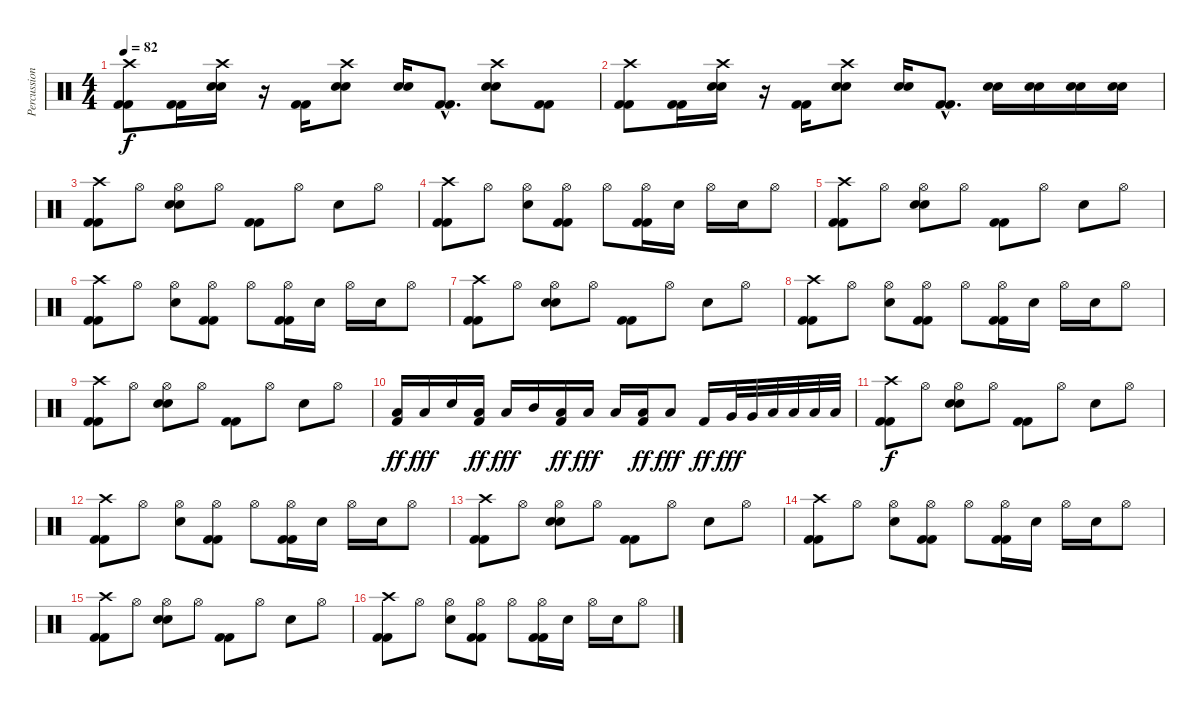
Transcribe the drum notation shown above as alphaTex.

\track ("Percussion" "Percussion") {instrument percussion}
\staff {score}
\articulation defaults
\ts (4 4)
\tempo 82
\clef neutral
\ks c
("Crash high (hit)" "Kick (hit) 2" "Kick (hit) 2").8{dy f} ("Kick (hit) 2" "Kick (hit) 2").16 ("Crash high (hit)" "Electric Snare (hit)" "Electric Snare (hit)").16 r.16 ("Kick (hit) 2" "Kick (hit) 2").16 ("Crash high (hit)" "Electric Snare (hit)" "Electric Snare (hit)").8 ("Electric Snare (hit)" "Electric Snare (hit)").16 ("Kick (hit) 2"{hac} "Kick (hit) 2"{hac}).8{d} ("Crash high (hit)" "Electric Snare (hit)" "Electric Snare (hit)").8 ("Kick (hit) 2" "Kick (hit) 2").8 |
("Crash high (hit)" "Kick (hit) 2" "Kick (hit) 2").8 ("Kick (hit) 2" "Kick (hit) 2").16 ("Crash high (hit)" "Electric Snare (hit)" "Electric Snare (hit)").16 r.16 ("Kick (hit) 2" "Kick (hit) 2").16 ("Crash high (hit)" "Electric Snare (hit)" "Electric Snare (hit)").8 ("Electric Snare (hit)" "Electric Snare (hit)").16 ("Kick (hit) 2"{hac} "Kick (hit) 2"{hac}).8{d} ("Electric Snare (hit)" "Electric Snare (hit)").16 ("Electric Snare (hit)" "Electric Snare (hit)").16 ("Electric Snare (hit)" "Electric Snare (hit)").16 ("Electric Snare (hit)" "Electric Snare (hit)").16 |
("Crash high (hit)" "Kick (hit) 2" "Kick (hit) 2").8 "Hi-Hat (open)".8 ("Hi-Hat (open)" "Electric Snare (hit)" "Electric Snare (hit)").8 "Hi-Hat (open)".8 ("Kick (hit) 2" "Kick (hit) 2").8 "Hi-Hat (open)".8 "Electric Snare (hit)".8 "Hi-Hat (open)".8 |
("Crash high (hit)" "Kick (hit) 2" "Kick (hit) 2").8 "Hi-Hat (open)".8 ("Hi-Hat (open)" "Electric Snare (hit)").8 ("Hi-Hat (open)" "Kick (hit) 2" "Kick (hit) 2").8 "Hi-Hat (open)".8 ("Hi-Hat (open)" "Kick (hit) 2" "Kick (hit) 2").16 "Electric Snare (hit)".16 "Hi-Hat (open)".16 "Electric Snare (hit)".16 "Hi-Hat (open)".8 |
("Crash high (hit)" "Kick (hit) 2" "Kick (hit) 2").8 "Hi-Hat (open)".8 ("Hi-Hat (open)" "Electric Snare (hit)" "Electric Snare (hit)").8 "Hi-Hat (open)".8 ("Kick (hit) 2" "Kick (hit) 2").8 "Hi-Hat (open)".8 "Electric Snare (hit)".8 "Hi-Hat (open)".8 |
("Crash high (hit)" "Kick (hit) 2" "Kick (hit) 2").8 "Hi-Hat (open)".8 ("Hi-Hat (open)" "Electric Snare (hit)").8 ("Hi-Hat (open)" "Kick (hit) 2" "Kick (hit) 2").8 "Hi-Hat (open)".8 ("Hi-Hat (open)" "Kick (hit) 2" "Kick (hit) 2").16 "Electric Snare (hit)".16 "Hi-Hat (open)".16 "Electric Snare (hit)".16 "Hi-Hat (open)".8 |
("Crash high (hit)" "Kick (hit) 2" "Kick (hit) 2").8 "Hi-Hat (open)".8 ("Hi-Hat (open)" "Electric Snare (hit)" "Electric Snare (hit)").8 "Hi-Hat (open)".8 ("Kick (hit) 2" "Kick (hit) 2").8 "Hi-Hat (open)".8 "Electric Snare (hit)".8 "Hi-Hat (open)".8 |
("Crash high (hit)" "Kick (hit) 2" "Kick (hit) 2").8 "Hi-Hat (open)".8 ("Hi-Hat (open)" "Electric Snare (hit)").8 ("Hi-Hat (open)" "Kick (hit) 2" "Kick (hit) 2").8 "Hi-Hat (open)".8 ("Hi-Hat (open)" "Kick (hit) 2" "Kick (hit) 2").16 "Electric Snare (hit)".16 "Hi-Hat (open)".16 "Electric Snare (hit)".16 "Hi-Hat (open)".8 |
("Crash high (hit)" "Kick (hit) 2" "Kick (hit) 2").8 "Hi-Hat (open)".8 ("Hi-Hat (open)" "Electric Snare (hit)" "Electric Snare (hit)").8 "Hi-Hat (open)".8 ("Kick (hit) 2" "Kick (hit) 2").8 "Hi-Hat (open)".8 "Electric Snare (hit)".8 "Hi-Hat (open)".8 |
("Low Floor Tom (hit)" "Kick (hit) 2").16{dy ff} "Low Floor Tom (hit)".16{dy fff} "Electric Snare (hit)".16 ("Low Floor Tom (hit)" "Kick (hit) 2").16{dy ff} "Low Floor Tom (hit)".16{dy fff} "Mid Tom (hit)".16 ("Low Floor Tom (hit)" "Kick (hit) 2").16{dy ff} "Low Floor Tom (hit)".16{dy fff} "Low Tom (hit)".16 ("Low Floor Tom (hit)" "Kick (hit) 2").16{dy ff} "Low Floor Tom (hit)".8{dy fff} "Kick (hit) 2".16{dy ff} "Very Low Tom (hit)".32{dy fff} "Very Low Tom (hit)".32 "Low Floor Tom (hit)".32 "Low Floor Tom (hit)".32 "Low Floor Tom (hit)".32 "Low Floor Tom (hit)".32 |
("Crash high (hit)" "Kick (hit) 2" "Kick (hit) 2").8{dy f} "Hi-Hat (open)".8 ("Hi-Hat (open)" "Electric Snare (hit)" "Electric Snare (hit)").8 "Hi-Hat (open)".8 ("Kick (hit) 2" "Kick (hit) 2").8 "Hi-Hat (open)".8 "Electric Snare (hit)".8 "Hi-Hat (open)".8 |
("Crash high (hit)" "Kick (hit) 2" "Kick (hit) 2").8 "Hi-Hat (open)".8 ("Hi-Hat (open)" "Electric Snare (hit)").8 ("Hi-Hat (open)" "Kick (hit) 2" "Kick (hit) 2").8 "Hi-Hat (open)".8 ("Hi-Hat (open)" "Kick (hit) 2" "Kick (hit) 2").16 "Electric Snare (hit)".16 "Hi-Hat (open)".16 "Electric Snare (hit)".16 "Hi-Hat (open)".8 |
("Crash high (hit)" "Kick (hit) 2" "Kick (hit) 2").8 "Hi-Hat (open)".8 ("Hi-Hat (open)" "Electric Snare (hit)" "Electric Snare (hit)").8 "Hi-Hat (open)".8 ("Kick (hit) 2" "Kick (hit) 2").8 "Hi-Hat (open)".8 "Electric Snare (hit)".8 "Hi-Hat (open)".8 |
("Crash high (hit)" "Kick (hit) 2" "Kick (hit) 2").8 "Hi-Hat (open)".8 ("Hi-Hat (open)" "Electric Snare (hit)").8 ("Hi-Hat (open)" "Kick (hit) 2" "Kick (hit) 2").8 "Hi-Hat (open)".8 ("Hi-Hat (open)" "Kick (hit) 2" "Kick (hit) 2").16 "Electric Snare (hit)".16 "Hi-Hat (open)".16 "Electric Snare (hit)".16 "Hi-Hat (open)".8 |
("Crash high (hit)" "Kick (hit) 2" "Kick (hit) 2").8 "Hi-Hat (open)".8 ("Hi-Hat (open)" "Electric Snare (hit)" "Electric Snare (hit)").8 "Hi-Hat (open)".8 ("Kick (hit) 2" "Kick (hit) 2").8 "Hi-Hat (open)".8 "Electric Snare (hit)".8 "Hi-Hat (open)".8 |
("Crash high (hit)" "Kick (hit) 2" "Kick (hit) 2").8 "Hi-Hat (open)".8 ("Hi-Hat (open)" "Electric Snare (hit)").8 ("Hi-Hat (open)" "Kick (hit) 2" "Kick (hit) 2").8 "Hi-Hat (open)".8 ("Hi-Hat (open)" "Kick (hit) 2" "Kick (hit) 2").16 "Electric Snare (hit)".16 "Hi-Hat (open)".16 "Electric Snare (hit)".16 "Hi-Hat (open)".8
